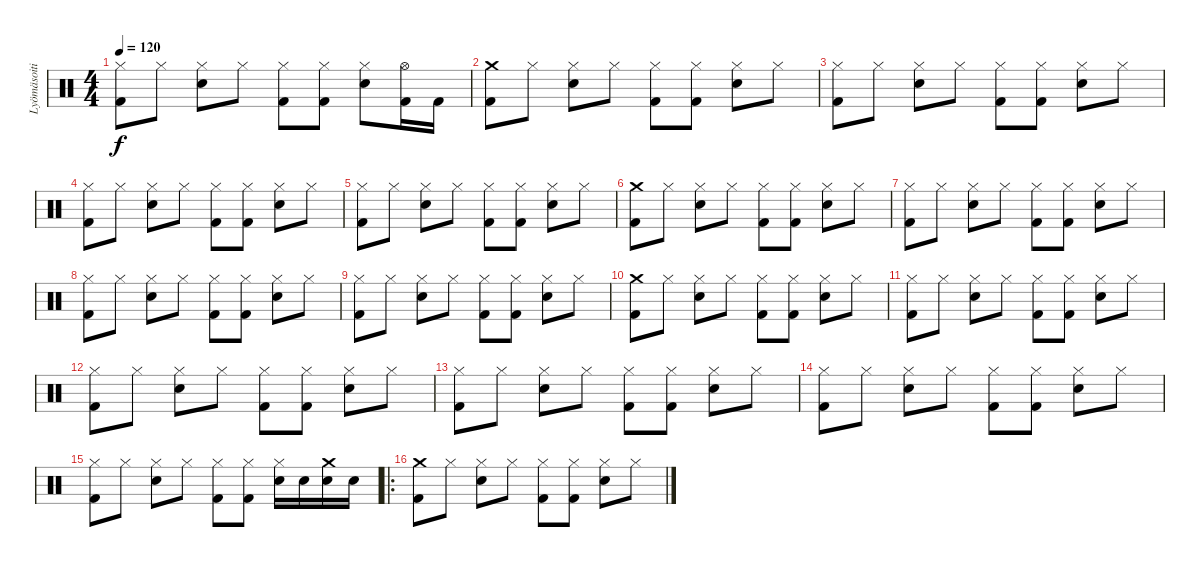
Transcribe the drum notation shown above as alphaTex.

\track ("Lyömäsoitin" "Lyömäsoiti") {instrument percussion}
\staff {score}
\articulation defaults
\ts (4 4)
\tempo 120
\clef neutral
\ks c
("Hi-Hat (closed)" "Kick (hit) 2").8{dy f} "Hi-Hat (closed)".8 ("Hi-Hat (closed)" "Electric Snare (hit)").8 "Hi-Hat (closed)".8 ("Hi-Hat (closed)" "Kick (hit) 2").8 ("Hi-Hat (closed)" "Kick (hit) 2").8 ("Hi-Hat (closed)" "Electric Snare (hit)").8 ("Hi-Hat (open)" "Kick (hit) 2").16 "Kick (hit) 2".16 |
("Crash medium (hit)" "Kick (hit) 2").8 "Hi-Hat (closed)".8 ("Hi-Hat (closed)" "Electric Snare (hit)").8 "Hi-Hat (closed)".8 ("Hi-Hat (closed)" "Kick (hit) 2").8 ("Hi-Hat (closed)" "Kick (hit) 2").8 ("Hi-Hat (closed)" "Electric Snare (hit)").8 "Hi-Hat (closed)".8 |
("Hi-Hat (closed)" "Kick (hit) 2").8 "Hi-Hat (closed)".8 ("Hi-Hat (closed)" "Electric Snare (hit)").8 "Hi-Hat (closed)".8 ("Hi-Hat (closed)" "Kick (hit) 2").8 ("Hi-Hat (closed)" "Kick (hit) 2").8 ("Hi-Hat (closed)" "Electric Snare (hit)").8 "Hi-Hat (closed)".8 |
("Hi-Hat (closed)" "Kick (hit) 2").8 "Hi-Hat (closed)".8 ("Hi-Hat (closed)" "Electric Snare (hit)").8 "Hi-Hat (closed)".8 ("Hi-Hat (closed)" "Kick (hit) 2").8 ("Hi-Hat (closed)" "Kick (hit) 2").8 ("Hi-Hat (closed)" "Electric Snare (hit)").8 "Hi-Hat (closed)".8 |
("Hi-Hat (closed)" "Kick (hit) 2").8 "Hi-Hat (closed)".8 ("Hi-Hat (closed)" "Electric Snare (hit)").8 "Hi-Hat (closed)".8 ("Hi-Hat (closed)" "Kick (hit) 2").8 ("Hi-Hat (closed)" "Kick (hit) 2").8 ("Hi-Hat (closed)" "Electric Snare (hit)").8 "Hi-Hat (closed)".8 |
("Crash medium (hit)" "Kick (hit) 2").8 "Hi-Hat (closed)".8 ("Hi-Hat (closed)" "Electric Snare (hit)").8 "Hi-Hat (closed)".8 ("Hi-Hat (closed)" "Kick (hit) 2").8 ("Hi-Hat (closed)" "Kick (hit) 2").8 ("Hi-Hat (closed)" "Electric Snare (hit)").8 "Hi-Hat (closed)".8 |
("Hi-Hat (closed)" "Kick (hit) 2").8 "Hi-Hat (closed)".8 ("Hi-Hat (closed)" "Electric Snare (hit)").8 "Hi-Hat (closed)".8 ("Hi-Hat (closed)" "Kick (hit) 2").8 ("Hi-Hat (closed)" "Kick (hit) 2").8 ("Hi-Hat (closed)" "Electric Snare (hit)").8 "Hi-Hat (closed)".8 |
("Hi-Hat (closed)" "Kick (hit) 2").8 "Hi-Hat (closed)".8 ("Hi-Hat (closed)" "Electric Snare (hit)").8 "Hi-Hat (closed)".8 ("Hi-Hat (closed)" "Kick (hit) 2").8 ("Hi-Hat (closed)" "Kick (hit) 2").8 ("Hi-Hat (closed)" "Electric Snare (hit)").8 "Hi-Hat (closed)".8 |
("Hi-Hat (closed)" "Kick (hit) 2").8 "Hi-Hat (closed)".8 ("Hi-Hat (closed)" "Electric Snare (hit)").8 "Hi-Hat (closed)".8 ("Hi-Hat (closed)" "Kick (hit) 2").8 ("Hi-Hat (closed)" "Kick (hit) 2").8 ("Hi-Hat (closed)" "Electric Snare (hit)").8 "Hi-Hat (closed)".8 |
("Crash medium (hit)" "Kick (hit) 2").8 "Hi-Hat (closed)".8 ("Hi-Hat (closed)" "Electric Snare (hit)").8 "Hi-Hat (closed)".8 ("Hi-Hat (closed)" "Kick (hit) 2").8 ("Hi-Hat (closed)" "Kick (hit) 2").8 ("Hi-Hat (closed)" "Electric Snare (hit)").8 "Hi-Hat (closed)".8 |
("Hi-Hat (closed)" "Kick (hit) 2").8 "Hi-Hat (closed)".8 ("Hi-Hat (closed)" "Electric Snare (hit)").8 "Hi-Hat (closed)".8 ("Hi-Hat (closed)" "Kick (hit) 2").8 ("Hi-Hat (closed)" "Kick (hit) 2").8 ("Hi-Hat (closed)" "Electric Snare (hit)").8 "Hi-Hat (closed)".8 |
("Hi-Hat (closed)" "Kick (hit) 2").8 "Hi-Hat (closed)".8 ("Hi-Hat (closed)" "Electric Snare (hit)").8 "Hi-Hat (closed)".8 ("Hi-Hat (closed)" "Kick (hit) 2").8 ("Hi-Hat (closed)" "Kick (hit) 2").8 ("Hi-Hat (closed)" "Electric Snare (hit)").8 "Hi-Hat (closed)".8 |
("Hi-Hat (closed)" "Kick (hit) 2").8 "Hi-Hat (closed)".8 ("Hi-Hat (closed)" "Electric Snare (hit)").8 "Hi-Hat (closed)".8 ("Hi-Hat (closed)" "Kick (hit) 2").8 ("Hi-Hat (closed)" "Kick (hit) 2").8 ("Hi-Hat (closed)" "Electric Snare (hit)").8 "Hi-Hat (closed)".8 |
("Hi-Hat (closed)" "Kick (hit) 2").8 "Hi-Hat (closed)".8 ("Hi-Hat (closed)" "Electric Snare (hit)").8 "Hi-Hat (closed)".8 ("Hi-Hat (closed)" "Kick (hit) 2").8 ("Hi-Hat (closed)" "Kick (hit) 2").8 ("Hi-Hat (closed)" "Electric Snare (hit)").8 "Hi-Hat (closed)".8 |
("Hi-Hat (closed)" "Kick (hit) 2").8 "Hi-Hat (closed)".8 ("Hi-Hat (closed)" "Electric Snare (hit)").8 "Hi-Hat (closed)".8 ("Hi-Hat (closed)" "Kick (hit) 2").8 ("Hi-Hat (closed)" "Kick (hit) 2").8 ("Hi-Hat (closed)" "Electric Snare (hit)").16 "Electric Snare (hit)".16 ("Crash medium (hit)" "Electric Snare (hit)").16 "Electric Snare (hit)".16 |
\ro
("Crash medium (hit)" "Kick (hit) 2").8 "Hi-Hat (closed)".8 ("Hi-Hat (closed)" "Electric Snare (hit)").8 "Hi-Hat (closed)".8 ("Hi-Hat (closed)" "Kick (hit) 2").8 ("Hi-Hat (closed)" "Kick (hit) 2").8 ("Hi-Hat (closed)" "Electric Snare (hit)").8 "Hi-Hat (closed)".8
